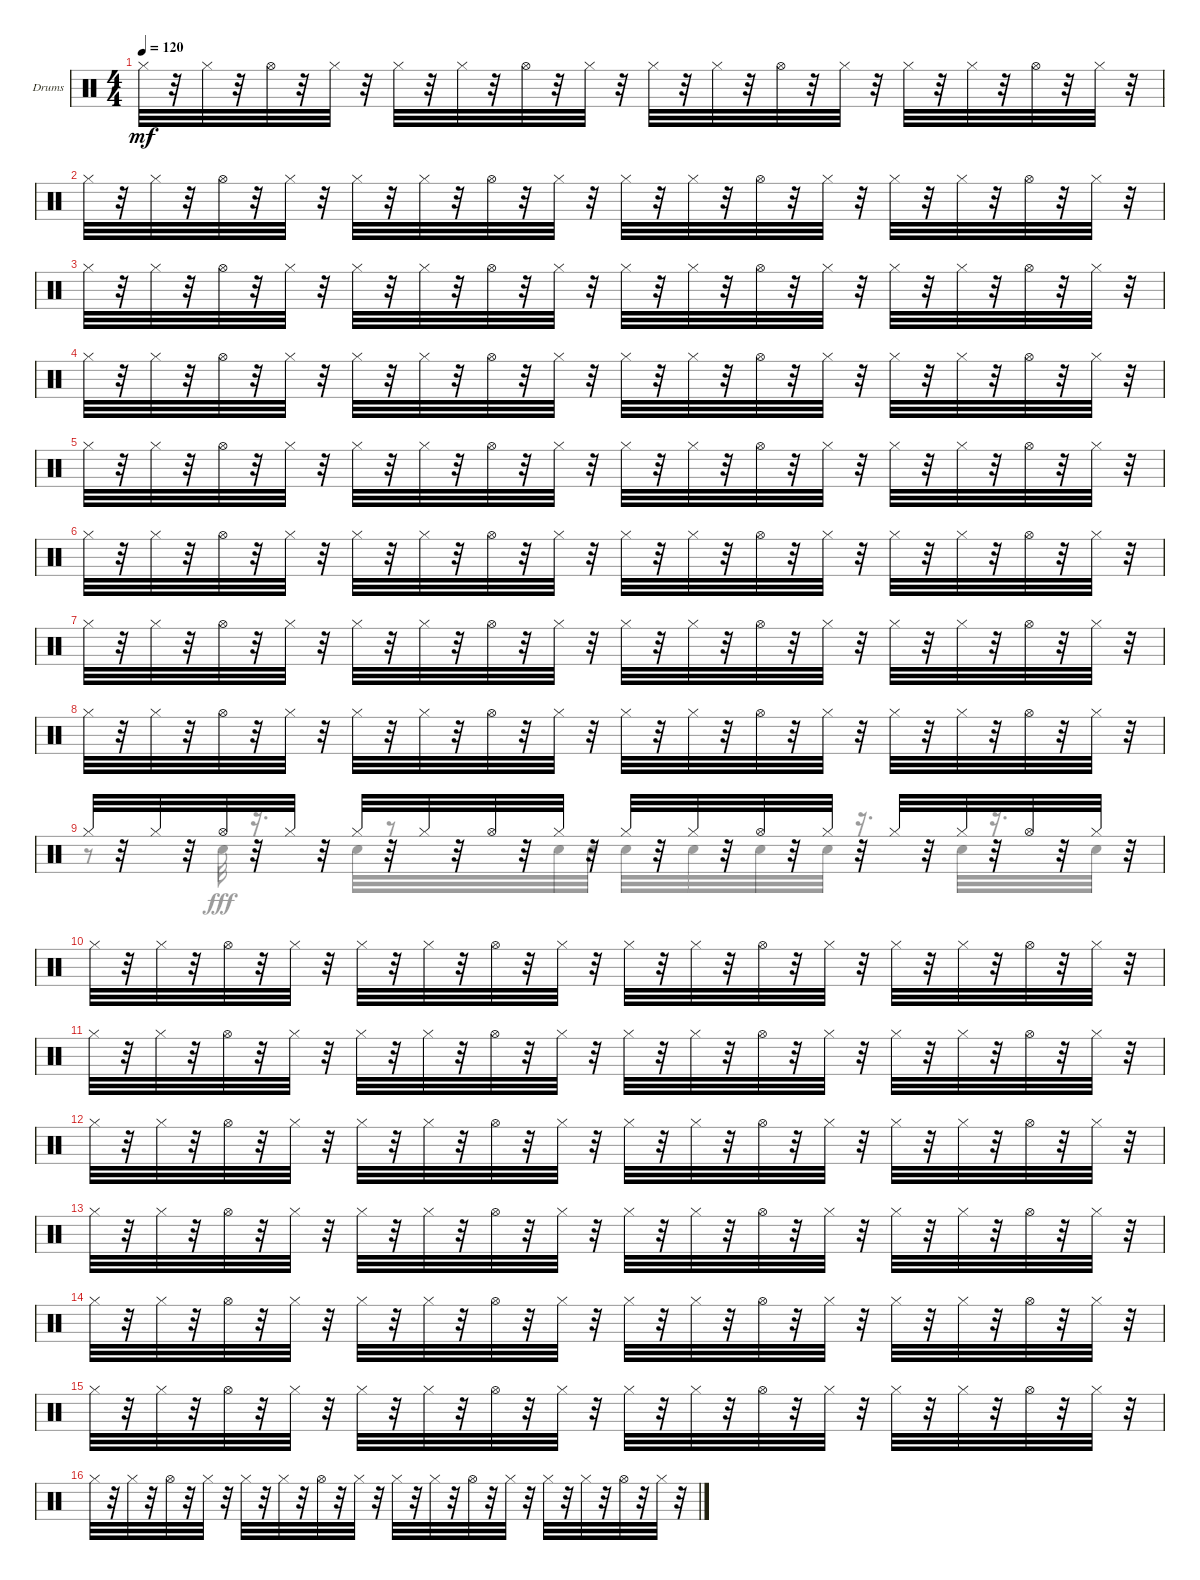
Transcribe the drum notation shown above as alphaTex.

\defaultSystemsLayout 4
\bracketExtendMode nobrackets
\firstSystemTrackNameOrientation horizontal
\otherSystemsTrackNameOrientation horizontal
\track ("Drumkit" "Drums") {instrument percussion}
\staff {score}
\articulation defaults
\voice
\ts (4 4)
\tempo 120
\clef neutral
\ks c "Hi-Hat (closed)".32{dy mf}
r.32 "Hi-Hat (closed)".32 r.32 "Hi-Hat (open)".32 r.32 "Hi-Hat (closed)".32 r.32 "Hi-Hat (closed)".32 r.32 "Hi-Hat (closed)".32 r.32 "Hi-Hat (open)".32 r.32 "Hi-Hat (closed)".32 r.32 "Hi-Hat (closed)".32 r.32 "Hi-Hat (closed)".32 r.32 "Hi-Hat (open)".32 r.32 "Hi-Hat (closed)".32 r.32 "Hi-Hat (closed)".32 r.32 "Hi-Hat (closed)".32 r.32 "Hi-Hat (open)".32 r.32 "Hi-Hat (closed)".32 r.32 |
"Hi-Hat (closed)".32 r.32 "Hi-Hat (closed)".32 r.32 "Hi-Hat (open)".32 r.32 "Hi-Hat (closed)".32 r.32 "Hi-Hat (closed)".32 r.32 "Hi-Hat (closed)".32 r.32 "Hi-Hat (open)".32 r.32 "Hi-Hat (closed)".32 r.32 "Hi-Hat (closed)".32 r.32 "Hi-Hat (closed)".32 r.32 "Hi-Hat (open)".32 r.32 "Hi-Hat (closed)".32 r.32 "Hi-Hat (closed)".32 r.32 "Hi-Hat (closed)".32 r.32 "Hi-Hat (open)".32 r.32 "Hi-Hat (closed)".32 r.32 |
"Hi-Hat (closed)".32 r.32 "Hi-Hat (closed)".32 r.32 "Hi-Hat (open)".32 r.32 "Hi-Hat (closed)".32 r.32 "Hi-Hat (closed)".32 r.32 "Hi-Hat (closed)".32 r.32 "Hi-Hat (open)".32 r.32 "Hi-Hat (closed)".32 r.32 "Hi-Hat (closed)".32 r.32 "Hi-Hat (closed)".32 r.32 "Hi-Hat (open)".32 r.32 "Hi-Hat (closed)".32 r.32 "Hi-Hat (closed)".32 r.32 "Hi-Hat (closed)".32 r.32 "Hi-Hat (open)".32 r.32 "Hi-Hat (closed)".32 r.32 |
"Hi-Hat (closed)".32 r.32 "Hi-Hat (closed)".32 r.32 "Hi-Hat (open)".32 r.32 "Hi-Hat (closed)".32 r.32 "Hi-Hat (closed)".32 r.32 "Hi-Hat (closed)".32 r.32 "Hi-Hat (open)".32 r.32 "Hi-Hat (closed)".32 r.32 "Hi-Hat (closed)".32 r.32 "Hi-Hat (closed)".32 r.32 "Hi-Hat (open)".32 r.32 "Hi-Hat (closed)".32 r.32 "Hi-Hat (closed)".32 r.32 "Hi-Hat (closed)".32 r.32 "Hi-Hat (open)".32 r.32 "Hi-Hat (closed)".32 r.32 |
"Hi-Hat (closed)".32 r.32 "Hi-Hat (closed)".32 r.32 "Hi-Hat (open)".32 r.32 "Hi-Hat (closed)".32 r.32 "Hi-Hat (closed)".32 r.32 "Hi-Hat (closed)".32 r.32 "Hi-Hat (open)".32 r.32 "Hi-Hat (closed)".32 r.32 "Hi-Hat (closed)".32 r.32 "Hi-Hat (closed)".32 r.32 "Hi-Hat (open)".32 r.32 "Hi-Hat (closed)".32 r.32 "Hi-Hat (closed)".32 r.32 "Hi-Hat (closed)".32 r.32 "Hi-Hat (open)".32 r.32 "Hi-Hat (closed)".32 r.32 |
"Hi-Hat (closed)".32 r.32 "Hi-Hat (closed)".32 r.32 "Hi-Hat (open)".32 r.32 "Hi-Hat (closed)".32 r.32 "Hi-Hat (closed)".32 r.32 "Hi-Hat (closed)".32 r.32 "Hi-Hat (open)".32 r.32 "Hi-Hat (closed)".32 r.32 "Hi-Hat (closed)".32 r.32 "Hi-Hat (closed)".32 r.32 "Hi-Hat (open)".32 r.32 "Hi-Hat (closed)".32 r.32 "Hi-Hat (closed)".32 r.32 "Hi-Hat (closed)".32 r.32 "Hi-Hat (open)".32 r.32 "Hi-Hat (closed)".32 r.32 |
"Hi-Hat (closed)".32 r.32 "Hi-Hat (closed)".32 r.32 "Hi-Hat (open)".32 r.32 "Hi-Hat (closed)".32 r.32 "Hi-Hat (closed)".32 r.32 "Hi-Hat (closed)".32 r.32 "Hi-Hat (open)".32 r.32 "Hi-Hat (closed)".32 r.32 "Hi-Hat (closed)".32 r.32 "Hi-Hat (closed)".32 r.32 "Hi-Hat (open)".32 r.32 "Hi-Hat (closed)".32 r.32 "Hi-Hat (closed)".32 r.32 "Hi-Hat (closed)".32 r.32 "Hi-Hat (open)".32 r.32 "Hi-Hat (closed)".32 r.32 |
"Hi-Hat (closed)".32 r.32 "Hi-Hat (closed)".32 r.32 "Hi-Hat (open)".32 r.32 "Hi-Hat (closed)".32 r.32 "Hi-Hat (closed)".32 r.32 "Hi-Hat (closed)".32 r.32 "Hi-Hat (open)".32 r.32 "Hi-Hat (closed)".32 r.32 "Hi-Hat (closed)".32 r.32 "Hi-Hat (closed)".32 r.32 "Hi-Hat (open)".32 r.32 "Hi-Hat (closed)".32 r.32 "Hi-Hat (closed)".32 r.32 "Hi-Hat (closed)".32 r.32 "Hi-Hat (open)".32 r.32 "Hi-Hat (closed)".32 r.32 |
"Hi-Hat (closed)".32 r.32 "Hi-Hat (closed)".32 r.32 "Hi-Hat (open)".32 r.32 "Hi-Hat (closed)".32 r.32 "Hi-Hat (closed)".32 r.32 "Hi-Hat (closed)".32 r.32 "Hi-Hat (open)".32 r.32 "Hi-Hat (closed)".32 r.32 "Hi-Hat (closed)".32 r.32 "Hi-Hat (closed)".32 r.32 "Hi-Hat (open)".32 r.32 "Hi-Hat (closed)".32 r.32 "Hi-Hat (closed)".32 r.32 "Hi-Hat (closed)".32 r.32 "Hi-Hat (open)".32 r.32 "Hi-Hat (closed)".32 r.32 |
"Hi-Hat (closed)".32 r.32 "Hi-Hat (closed)".32 r.32 "Hi-Hat (open)".32 r.32 "Hi-Hat (closed)".32 r.32 "Hi-Hat (closed)".32 r.32 "Hi-Hat (closed)".32 r.32 "Hi-Hat (open)".32 r.32 "Hi-Hat (closed)".32 r.32 "Hi-Hat (closed)".32 r.32 "Hi-Hat (closed)".32 r.32 "Hi-Hat (open)".32 r.32 "Hi-Hat (closed)".32 r.32 "Hi-Hat (closed)".32 r.32 "Hi-Hat (closed)".32 r.32 "Hi-Hat (open)".32 r.32 "Hi-Hat (closed)".32 r.32 |
"Hi-Hat (closed)".32 r.32 "Hi-Hat (closed)".32 r.32 "Hi-Hat (open)".32 r.32 "Hi-Hat (closed)".32 r.32 "Hi-Hat (closed)".32 r.32 "Hi-Hat (closed)".32 r.32 "Hi-Hat (open)".32 r.32 "Hi-Hat (closed)".32 r.32 "Hi-Hat (closed)".32 r.32 "Hi-Hat (closed)".32 r.32 "Hi-Hat (open)".32 r.32 "Hi-Hat (closed)".32 r.32 "Hi-Hat (closed)".32 r.32 "Hi-Hat (closed)".32 r.32 "Hi-Hat (open)".32 r.32 "Hi-Hat (closed)".32 r.32 |
"Hi-Hat (closed)".32 r.32 "Hi-Hat (closed)".32 r.32 "Hi-Hat (open)".32 r.32 "Hi-Hat (closed)".32 r.32 "Hi-Hat (closed)".32 r.32 "Hi-Hat (closed)".32 r.32 "Hi-Hat (open)".32 r.32 "Hi-Hat (closed)".32 r.32 "Hi-Hat (closed)".32 r.32 "Hi-Hat (closed)".32 r.32 "Hi-Hat (open)".32 r.32 "Hi-Hat (closed)".32 r.32 "Hi-Hat (closed)".32 r.32 "Hi-Hat (closed)".32 r.32 "Hi-Hat (open)".32 r.32 "Hi-Hat (closed)".32 r.32 |
"Hi-Hat (closed)".32 r.32 "Hi-Hat (closed)".32 r.32 "Hi-Hat (open)".32 r.32 "Hi-Hat (closed)".32 r.32 "Hi-Hat (closed)".32 r.32 "Hi-Hat (closed)".32 r.32 "Hi-Hat (open)".32 r.32 "Hi-Hat (closed)".32 r.32 "Hi-Hat (closed)".32 r.32 "Hi-Hat (closed)".32 r.32 "Hi-Hat (open)".32 r.32 "Hi-Hat (closed)".32 r.32 "Hi-Hat (closed)".32 r.32 "Hi-Hat (closed)".32 r.32 "Hi-Hat (open)".32 r.32 "Hi-Hat (closed)".32 r.32 |
"Hi-Hat (closed)".32 r.32 "Hi-Hat (closed)".32 r.32 "Hi-Hat (open)".32 r.32 "Hi-Hat (closed)".32 r.32 "Hi-Hat (closed)".32 r.32 "Hi-Hat (closed)".32 r.32 "Hi-Hat (open)".32 r.32 "Hi-Hat (closed)".32 r.32 "Hi-Hat (closed)".32 r.32 "Hi-Hat (closed)".32 r.32 "Hi-Hat (open)".32 r.32 "Hi-Hat (closed)".32 r.32 "Hi-Hat (closed)".32 r.32 "Hi-Hat (closed)".32 r.32 "Hi-Hat (open)".32 r.32 "Hi-Hat (closed)".32 r.32 |
"Hi-Hat (closed)".32 r.32 "Hi-Hat (closed)".32 r.32 "Hi-Hat (open)".32 r.32 "Hi-Hat (closed)".32 r.32 "Hi-Hat (closed)".32 r.32 "Hi-Hat (closed)".32 r.32 "Hi-Hat (open)".32 r.32 "Hi-Hat (closed)".32 r.32 "Hi-Hat (closed)".32 r.32 "Hi-Hat (closed)".32 r.32 "Hi-Hat (open)".32 r.32 "Hi-Hat (closed)".32 r.32 "Hi-Hat (closed)".32 r.32 "Hi-Hat (closed)".32 r.32 "Hi-Hat (open)".32 r.32 "Hi-Hat (closed)".32 r.32 |
"Hi-Hat (closed)".32 r.32 "Hi-Hat (closed)".32 r.32 "Hi-Hat (open)".32 r.32 "Hi-Hat (closed)".32 r.32 "Hi-Hat (closed)".32 r.32 "Hi-Hat (closed)".32 r.32 "Hi-Hat (open)".32 r.32 "Hi-Hat (closed)".32 r.32 "Hi-Hat (closed)".32 r.32 "Hi-Hat (closed)".32 r.32 "Hi-Hat (open)".32 r.32 "Hi-Hat (closed)".32 r.32 "Hi-Hat (closed)".32 r.32 "Hi-Hat (closed)".32 r.32 "Hi-Hat (open)".32 r.32 "Hi-Hat (closed)".32 r.32
\voice
\clef neutral
\ottava regular
\simile none
\ks c
|
|
|
|
|
|
|
|
r.8 "Snare (hit) 2".32{dy fff} r.16{d} "Snare (hit) 2".32 r.8 r.32 "Snare (hit) 2".32 "Snare (hit) 2".32 "Snare (hit) 2".32 r.32 "Snare (hit) 2".32 r.32 "Snare (hit) 2".32 r.32 "Snare (hit) 2".32 r.16{d} "Snare (hit) 2".32 r.16{d} "Snare (hit) 2".32 r.32 |
|
|
|
|
|
|
